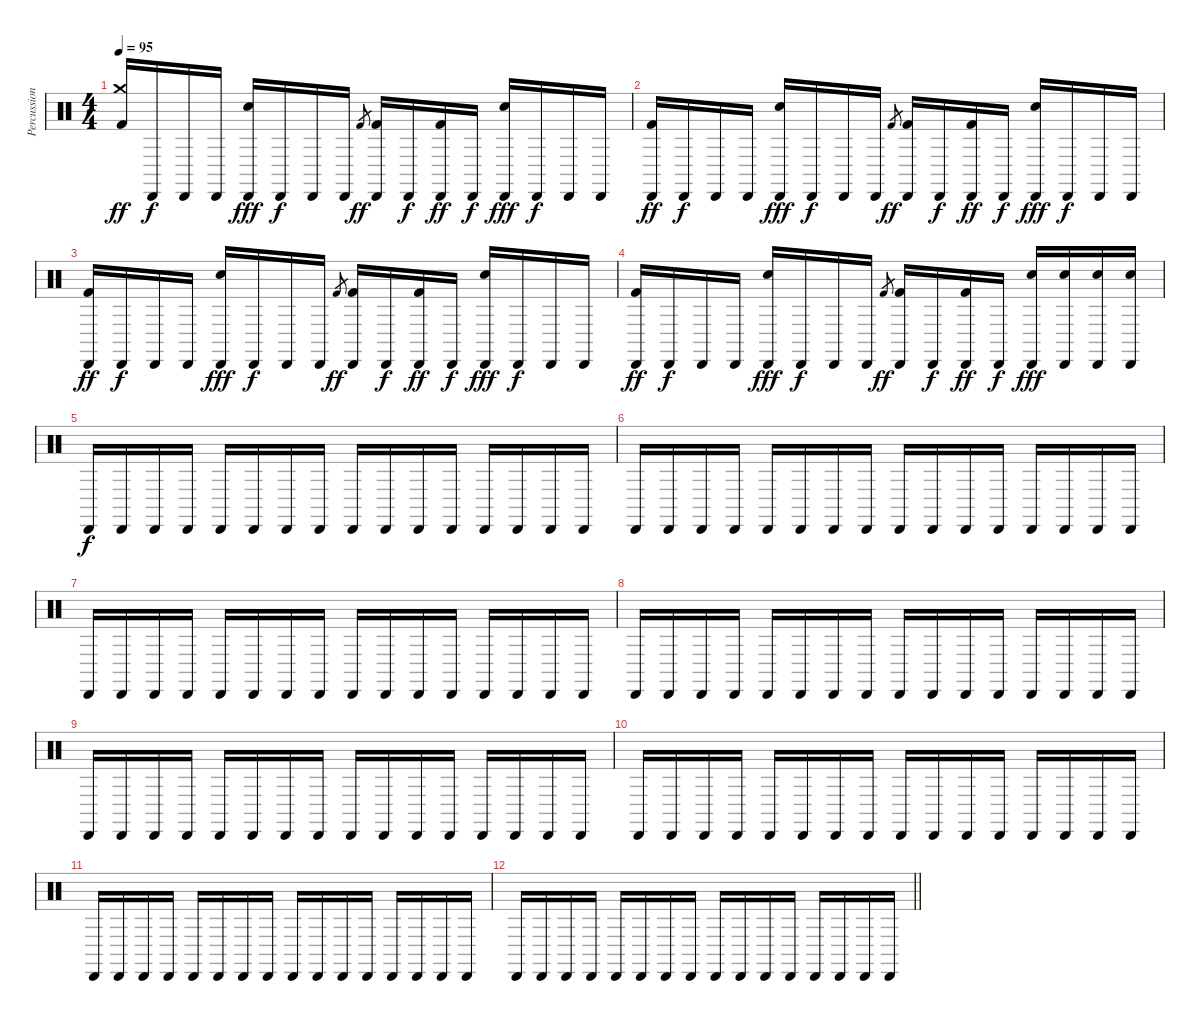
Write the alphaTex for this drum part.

\track ("Percussion" "Percussion") {instrument percussion}
\staff {score}
\articulation defaults
\ts (4 4)
\tempo 95
\clef neutral
\ks c
("Crash medium (hit)" "Kick (hit) 2").16{dy ff} "Cabasa (hit)".16{dy f} "Cabasa (hit)".16 "Cabasa (hit)".16 ("Cabasa (hit)" "Electric Snare (hit)").16{dy fff} "Cabasa (hit)".16{dy f} "Cabasa (hit)".16 "Cabasa (hit)".16 "Kick (hit) 2".8{gr dy ff} ("Cabasa (hit)" "Kick (hit) 2").16 "Cabasa (hit)".16{dy f} ("Cabasa (hit)" "Kick (hit) 2").16{dy ff} "Cabasa (hit)".16{dy f} ("Cabasa (hit)" "Electric Snare (hit)").16{dy fff} "Cabasa (hit)".16{dy f} "Cabasa (hit)".16 "Cabasa (hit)".16 |
("Cabasa (hit)" "Kick (hit) 2").16{dy ff} "Cabasa (hit)".16{dy f} "Cabasa (hit)".16 "Cabasa (hit)".16 ("Cabasa (hit)" "Electric Snare (hit)").16{dy fff} "Cabasa (hit)".16{dy f} "Cabasa (hit)".16 "Cabasa (hit)".16 "Kick (hit) 2".8{gr dy ff} ("Cabasa (hit)" "Kick (hit) 2").16 "Cabasa (hit)".16{dy f} ("Cabasa (hit)" "Kick (hit) 2").16{dy ff} "Cabasa (hit)".16{dy f} ("Cabasa (hit)" "Electric Snare (hit)").16{dy fff} "Cabasa (hit)".16{dy f} "Cabasa (hit)".16 "Cabasa (hit)".16 |
("Cabasa (hit)" "Kick (hit) 2").16{dy ff} "Cabasa (hit)".16{dy f} "Cabasa (hit)".16 "Cabasa (hit)".16 ("Cabasa (hit)" "Electric Snare (hit)").16{dy fff} "Cabasa (hit)".16{dy f} "Cabasa (hit)".16 "Cabasa (hit)".16 "Kick (hit) 2".8{gr dy ff} ("Cabasa (hit)" "Kick (hit) 2").16 "Cabasa (hit)".16{dy f} ("Cabasa (hit)" "Kick (hit) 2").16{dy ff} "Cabasa (hit)".16{dy f} ("Cabasa (hit)" "Electric Snare (hit)").16{dy fff} "Cabasa (hit)".16{dy f} "Cabasa (hit)".16 "Cabasa (hit)".16 |
("Cabasa (hit)" "Kick (hit) 2").16{dy ff} "Cabasa (hit)".16{dy f} "Cabasa (hit)".16 "Cabasa (hit)".16 ("Cabasa (hit)" "Electric Snare (hit)").16{dy fff} "Cabasa (hit)".16{dy f} "Cabasa (hit)".16 "Cabasa (hit)".16 "Kick (hit) 2".8{gr dy ff} ("Cabasa (hit)" "Kick (hit) 2").16 "Cabasa (hit)".16{dy f} ("Cabasa (hit)" "Kick (hit) 2").16{dy ff} "Cabasa (hit)".16{dy f} ("Cabasa (hit)" "Electric Snare (hit)").16{dy fff} ("Cabasa (hit)" "Electric Snare (hit)").16 ("Cabasa (hit)" "Electric Snare (hit)").16 ("Cabasa (hit)" "Electric Snare (hit)").16 |
"Cabasa (hit)".16{dy f} "Cabasa (hit)".16 "Cabasa (hit)".16 "Cabasa (hit)".16 "Cabasa (hit)".16 "Cabasa (hit)".16 "Cabasa (hit)".16 "Cabasa (hit)".16 "Cabasa (hit)".16 "Cabasa (hit)".16 "Cabasa (hit)".16 "Cabasa (hit)".16 "Cabasa (hit)".16 "Cabasa (hit)".16 "Cabasa (hit)".16 "Cabasa (hit)".16 |
"Cabasa (hit)".16 "Cabasa (hit)".16 "Cabasa (hit)".16 "Cabasa (hit)".16 "Cabasa (hit)".16 "Cabasa (hit)".16 "Cabasa (hit)".16 "Cabasa (hit)".16 "Cabasa (hit)".16 "Cabasa (hit)".16 "Cabasa (hit)".16 "Cabasa (hit)".16 "Cabasa (hit)".16 "Cabasa (hit)".16 "Cabasa (hit)".16 "Cabasa (hit)".16 |
"Cabasa (hit)".16 "Cabasa (hit)".16 "Cabasa (hit)".16 "Cabasa (hit)".16 "Cabasa (hit)".16 "Cabasa (hit)".16 "Cabasa (hit)".16 "Cabasa (hit)".16 "Cabasa (hit)".16 "Cabasa (hit)".16 "Cabasa (hit)".16 "Cabasa (hit)".16 "Cabasa (hit)".16 "Cabasa (hit)".16 "Cabasa (hit)".16 "Cabasa (hit)".16 |
"Cabasa (hit)".16 "Cabasa (hit)".16 "Cabasa (hit)".16 "Cabasa (hit)".16 "Cabasa (hit)".16 "Cabasa (hit)".16 "Cabasa (hit)".16 "Cabasa (hit)".16 "Cabasa (hit)".16 "Cabasa (hit)".16 "Cabasa (hit)".16 "Cabasa (hit)".16 "Cabasa (hit)".16 "Cabasa (hit)".16 "Cabasa (hit)".16 "Cabasa (hit)".16 |
"Cabasa (hit)".16 "Cabasa (hit)".16 "Cabasa (hit)".16 "Cabasa (hit)".16 "Cabasa (hit)".16 "Cabasa (hit)".16 "Cabasa (hit)".16 "Cabasa (hit)".16 "Cabasa (hit)".16 "Cabasa (hit)".16 "Cabasa (hit)".16 "Cabasa (hit)".16 "Cabasa (hit)".16 "Cabasa (hit)".16 "Cabasa (hit)".16 "Cabasa (hit)".16 |
"Cabasa (hit)".16 "Cabasa (hit)".16 "Cabasa (hit)".16 "Cabasa (hit)".16 "Cabasa (hit)".16 "Cabasa (hit)".16 "Cabasa (hit)".16 "Cabasa (hit)".16 "Cabasa (hit)".16 "Cabasa (hit)".16 "Cabasa (hit)".16 "Cabasa (hit)".16 "Cabasa (hit)".16{volume 0} "Cabasa (hit)".16 "Cabasa (hit)".16 "Cabasa (hit)".16 |
"Cabasa (hit)".16 "Cabasa (hit)".16 "Cabasa (hit)".16 "Cabasa (hit)".16 "Cabasa (hit)".16 "Cabasa (hit)".16 "Cabasa (hit)".16 "Cabasa (hit)".16 "Cabasa (hit)".16 "Cabasa (hit)".16 "Cabasa (hit)".16 "Cabasa (hit)".16 "Cabasa (hit)".16 "Cabasa (hit)".16 "Cabasa (hit)".16 "Cabasa (hit)".16 |
\barLineRight lightlight "Cabasa (hit)".16 "Cabasa (hit)".16 "Cabasa (hit)".16 "Cabasa (hit)".16 "Cabasa (hit)".16 "Cabasa (hit)".16 "Cabasa (hit)".16 "Cabasa (hit)".16 "Cabasa (hit)".16 "Cabasa (hit)".16 "Cabasa (hit)".16 "Cabasa (hit)".16 "Cabasa (hit)".16 "Cabasa (hit)".16 "Cabasa (hit)".16 "Cabasa (hit)".16
